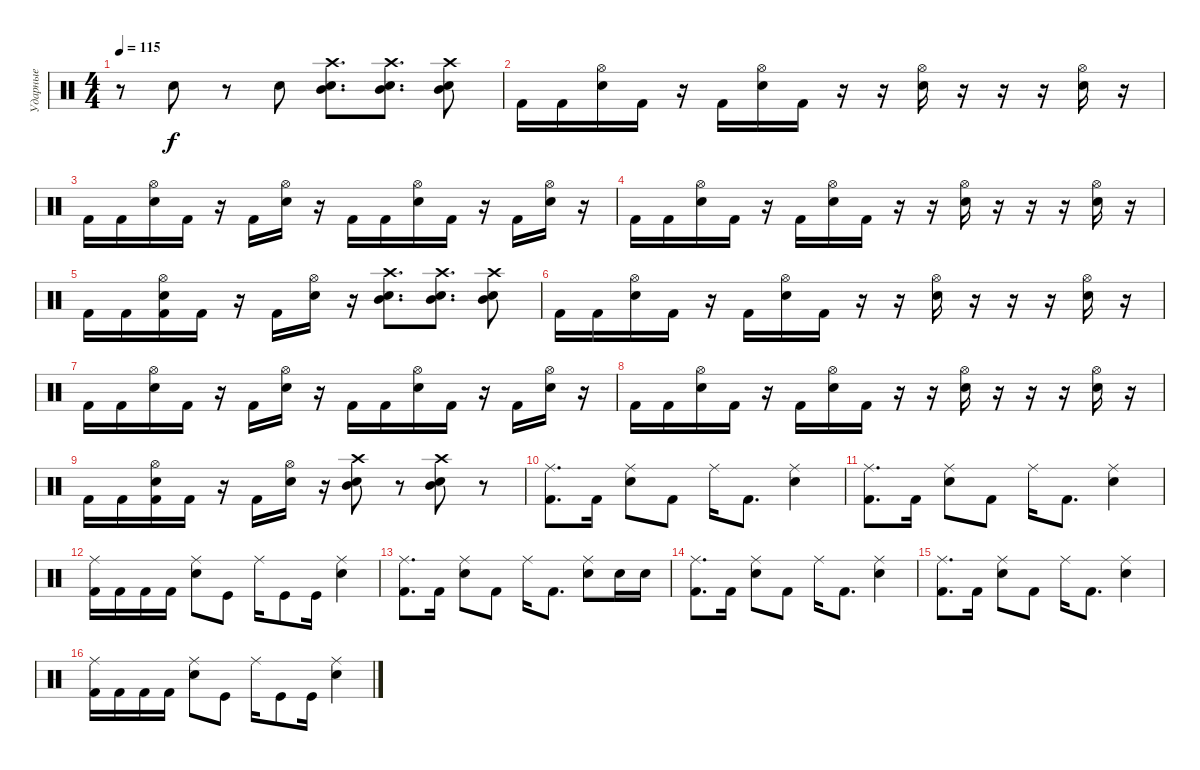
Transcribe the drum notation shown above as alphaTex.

\track ("Ударные" "Ударные") {instrument percussion}
\staff {score}
\articulation defaults
\ts (4 4)
\tempo 115
\clef neutral
\ks c
r.8{dy f} "Snare (hit) 2".8 r.8 "Snare (hit) 2".8 ("Snare (hit) 2" "Mid Tom (hit)" "Crash high (hit)").8{d} ("Snare (hit) 2" "Mid Tom (hit)" "Crash high (hit)").8{d} ("Snare (hit) 2" "Mid Tom (hit)" "Crash high (hit)").8 |
"Kick (hit) 2".16 "Kick (hit) 2".16 ("Snare (hit) 2" "Hi-Hat (open)").16 "Kick (hit) 2".16 r.16 "Kick (hit) 2".16 ("Snare (hit) 2" "Hi-Hat (open)").16 "Kick (hit) 2".16 r.16 r.16 ("Snare (hit) 2" "Hi-Hat (open)").16 r.16 r.16 r.16 ("Snare (hit) 2" "Hi-Hat (open)").16 r.16 |
"Kick (hit) 2".16 "Kick (hit) 2".16 ("Snare (hit) 2" "Hi-Hat (open)").16 "Kick (hit) 2".16 r.16 "Kick (hit) 2".16 ("Snare (hit) 2" "Hi-Hat (open)").16 r.16 "Kick (hit) 2".16 "Kick (hit) 2".16 ("Snare (hit) 2" "Hi-Hat (open)").16 "Kick (hit) 2".16 r.16 "Kick (hit) 2".16 ("Snare (hit) 2" "Hi-Hat (open)").16 r.16 |
"Kick (hit) 2".16 "Kick (hit) 2".16 ("Snare (hit) 2" "Hi-Hat (open)").16 "Kick (hit) 2".16 r.16 "Kick (hit) 2".16 ("Snare (hit) 2" "Hi-Hat (open)").16 "Kick (hit) 2".16 r.16 r.16 ("Snare (hit) 2" "Hi-Hat (open)").16 r.16 r.16 r.16 ("Snare (hit) 2" "Hi-Hat (open)").16 r.16 |
"Kick (hit) 2".16 "Kick (hit) 2".16 ("Kick (hit) 2" "Snare (hit) 2" "Hi-Hat (open)").16 "Kick (hit) 2".16 r.16 "Kick (hit) 2".16 ("Snare (hit) 2" "Hi-Hat (open)").16 r.16 ("Snare (hit) 2" "Mid Tom (hit)" "Crash high (hit)").8{d} ("Snare (hit) 2" "Mid Tom (hit)" "Crash high (hit)").8{d} ("Snare (hit) 2" "Mid Tom (hit)" "Crash high (hit)").8 |
"Kick (hit) 2".16 "Kick (hit) 2".16 ("Snare (hit) 2" "Hi-Hat (open)").16 "Kick (hit) 2".16 r.16 "Kick (hit) 2".16 ("Snare (hit) 2" "Hi-Hat (open)").16 "Kick (hit) 2".16 r.16 r.16 ("Snare (hit) 2" "Hi-Hat (open)").16 r.16 r.16 r.16 ("Snare (hit) 2" "Hi-Hat (open)").16 r.16 |
"Kick (hit) 2".16 "Kick (hit) 2".16 ("Snare (hit) 2" "Hi-Hat (open)").16 "Kick (hit) 2".16 r.16 "Kick (hit) 2".16 ("Snare (hit) 2" "Hi-Hat (open)").16 r.16 "Kick (hit) 2".16 "Kick (hit) 2".16 ("Snare (hit) 2" "Hi-Hat (open)").16 "Kick (hit) 2".16 r.16 "Kick (hit) 2".16 ("Snare (hit) 2" "Hi-Hat (open)").16 r.16 |
"Kick (hit) 2".16 "Kick (hit) 2".16 ("Snare (hit) 2" "Hi-Hat (open)").16 "Kick (hit) 2".16 r.16 "Kick (hit) 2".16 ("Snare (hit) 2" "Hi-Hat (open)").16 "Kick (hit) 2".16 r.16 r.16 ("Snare (hit) 2" "Hi-Hat (open)").16 r.16 r.16 r.16 ("Snare (hit) 2" "Hi-Hat (open)").16 r.16 |
"Kick (hit) 2".16 "Kick (hit) 2".16 ("Kick (hit) 2" "Snare (hit) 2" "Hi-Hat (open)").16 "Kick (hit) 2".16 r.16 "Kick (hit) 2".16 ("Snare (hit) 2" "Hi-Hat (open)").16 r.16 ("Snare (hit) 2" "Mid Tom (hit)" "Crash high (hit)").8 r.8 ("Snare (hit) 2" "Mid Tom (hit)" "Crash high (hit)").8 r.8 |
("Kick (hit) 2" "Ride (middle)").8{d} "Kick (hit) 2".16 ("Snare (hit) 2" "Ride (middle)").8 "Kick (hit) 2".8 "Ride (middle)".16 "Kick (hit) 2".8{d} ("Snare (hit) 2" "Ride (middle)").4 |
("Kick (hit) 2" "Ride (middle)").8{d} "Kick (hit) 2".16 ("Snare (hit) 2" "Ride (middle)").8 "Kick (hit) 2".8 "Ride (middle)".16 "Kick (hit) 2".8{d} ("Snare (hit) 2" "Ride (middle)").4 |
("Kick (hit) 2" "Ride (middle)").16 "Kick (hit) 2".16 "Kick (hit) 2".16 "Kick (hit) 2".16 ("Snare (hit) 2" "Ride (middle)").8 "Kick (hit)".8 "Ride (middle)".16 "Kick (hit)".8 "Kick (hit)".16 ("Snare (hit) 2" "Ride (middle)").4 |
("Kick (hit) 2" "Ride (middle)").8{d} "Kick (hit) 2".16 ("Snare (hit) 2" "Ride (middle)").8 "Kick (hit) 2".8 "Ride (middle)".16 "Kick (hit) 2".8{d} ("Snare (hit) 2" "Ride (middle)").8 "Snare (hit) 2".16 "Snare (hit) 2".16 |
("Kick (hit) 2" "Ride (middle)").8{d} "Kick (hit) 2".16 ("Snare (hit) 2" "Ride (middle)").8 "Kick (hit) 2".8 "Ride (middle)".16 "Kick (hit) 2".8{d} ("Snare (hit) 2" "Ride (middle)").4 |
("Kick (hit) 2" "Ride (middle)").8{d} "Kick (hit) 2".16 ("Snare (hit) 2" "Ride (middle)").8 "Kick (hit) 2".8 "Ride (middle)".16 "Kick (hit) 2".8{d} ("Snare (hit) 2" "Ride (middle)").4 |
("Kick (hit) 2" "Ride (middle)").16 "Kick (hit) 2".16 "Kick (hit) 2".16 "Kick (hit) 2".16 ("Snare (hit) 2" "Ride (middle)").8 "Kick (hit)".8 "Ride (middle)".16 "Kick (hit)".8 "Kick (hit)".16 ("Snare (hit) 2" "Ride (middle)").4
